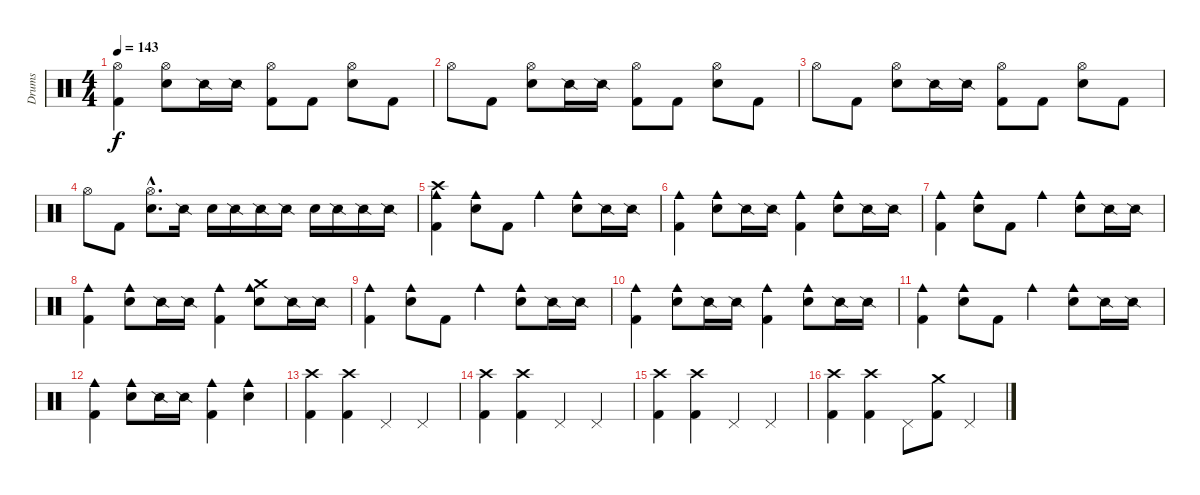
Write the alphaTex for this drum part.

\track ("Drums" "Drums") {instrument percussion}
\staff {score}
\articulation defaults
\ts (4 4)
\tempo 143
\clef neutral
\ks c
("Hi-Hat (open)" "Kick (hit) 2").4{dy f} ("Hi-Hat (open)" "Metronome (bell)").8 "Snare (side stick) 2".16 "Snare (side stick) 2".16 ("Hi-Hat (open)" "Kick (hit) 2").8 "Kick (hit) 2".8 ("Hi-Hat (open)" "Metronome (bell)").8 "Kick (hit) 2".8 |
"Hi-Hat (open)".8 "Kick (hit) 2".8 ("Hi-Hat (open)" "Metronome (bell)").8 "Snare (side stick) 2".16 "Snare (side stick) 2".16 ("Hi-Hat (open)" "Kick (hit) 2").8 "Kick (hit) 2".8 ("Hi-Hat (open)" "Metronome (bell)").8 "Kick (hit) 2".8 |
"Hi-Hat (open)".8 "Kick (hit) 2".8 ("Hi-Hat (open)" "Metronome (bell)").8 "Snare (side stick) 2".16 "Snare (side stick) 2".16 ("Hi-Hat (open)" "Kick (hit) 2").8 "Kick (hit) 2".8 ("Hi-Hat (open)" "Metronome (bell)").8 "Kick (hit) 2".8 |
"Hi-Hat (open)".8 "Kick (hit) 2".8 ("Hi-Hat (open)"{hac} "Metronome (bell)"{hac}).8{d} "Snare (side stick) 2".16 "Metronome (bell)".16 "Snare (side stick) 2".16 "Snare (side stick) 2".16 "Snare (side stick) 2".16 "Metronome (bell)".16 "Snare (side stick) 2".16 "Snare (side stick) 2".16 "Snare (side stick) 2".16 |
("Cowbell medium (hit)" "Crash high (hit)" "Kick (hit) 2").4 ("Cowbell medium (hit)" "Metronome (bell)").8 "Kick (hit) 2".8 "Cowbell medium (hit)".4 ("Cowbell medium (hit)" "Metronome (bell)").8 "Snare (side stick) 2".16 "Snare (side stick) 2".16 |
("Cowbell medium (hit)" "Kick (hit) 2").4 ("Cowbell medium (hit)" "Metronome (bell)").8 "Snare (side stick) 2".16 "Snare (side stick) 2".16 ("Cowbell medium (hit)" "Kick (hit) 2").4 ("Cowbell medium (hit)" "Metronome (bell)").8 "Snare (side stick) 2".16 "Snare (side stick) 2".16 |
("Cowbell medium (hit)" "Kick (hit) 2").4 ("Cowbell medium (hit)" "Metronome (bell)").8 "Kick (hit) 2".8 "Cowbell medium (hit)".4 ("Cowbell medium (hit)" "Metronome (bell)").8 "Snare (side stick) 2".16 "Snare (side stick) 2".16 |
("Cowbell medium (hit)" "Kick (hit) 2").4 ("Cowbell medium (hit)" "Metronome (bell)").8 "Snare (side stick) 2".16 "Snare (side stick) 2".16 ("Cowbell medium (hit)" "Kick (hit) 2").4 ("Cowbell medium (hit)" "Crash medium (hit)" "Metronome (bell)").8 "Snare (side stick) 2".16 "Snare (side stick) 2".16 |
("Cowbell medium (hit)" "Kick (hit) 2").4 ("Cowbell medium (hit)" "Metronome (bell)").8 "Kick (hit) 2".8 "Cowbell medium (hit)".4 ("Cowbell medium (hit)" "Metronome (bell)").8 "Snare (side stick) 2".16 "Snare (side stick) 2".16 |
("Cowbell medium (hit)" "Kick (hit) 2").4 ("Cowbell medium (hit)" "Metronome (bell)").8 "Snare (side stick) 2".16 "Snare (side stick) 2".16 ("Cowbell medium (hit)" "Kick (hit) 2").4 ("Cowbell medium (hit)" "Metronome (bell)").8 "Snare (side stick) 2".16 "Snare (side stick) 2".16 |
("Cowbell medium (hit)" "Kick (hit) 2").4 ("Cowbell medium (hit)" "Metronome (bell)").8 "Kick (hit) 2".8 "Cowbell medium (hit)".4 ("Cowbell medium (hit)" "Metronome (bell)").8 "Snare (side stick) 2".16 "Snare (side stick) 2".16 |
("Cowbell medium (hit)" "Kick (hit) 2").4 ("Cowbell medium (hit)" "Metronome (bell)").8 "Snare (side stick) 2".16 "Snare (side stick) 2".16 ("Cowbell medium (hit)" "Kick (hit) 2").4 ("Cowbell medium (hit)" "Metronome (bell)").4 |
("Crash high (hit)" "Kick (hit) 2").4 ("Crash high (hit)" "Kick (hit) 2").4 "Pedal Hi-Hat (hit)".4 "Pedal Hi-Hat (hit)".4 |
("Crash high (hit)" "Kick (hit) 2").4 ("Crash high (hit)" "Kick (hit) 2").4 "Pedal Hi-Hat (hit)".4 "Pedal Hi-Hat (hit)".4 |
("Crash high (hit)" "Kick (hit) 2").4 ("Crash high (hit)" "Kick (hit) 2").4 "Pedal Hi-Hat (hit)".4 "Pedal Hi-Hat (hit)".4 |
("Crash high (hit)" "Kick (hit) 2").4 ("Crash high (hit)" "Kick (hit) 2").4 "Pedal Hi-Hat (hit)".8 ("Crash medium (hit)" "Kick (hit) 2").8 "Pedal Hi-Hat (hit)".4
